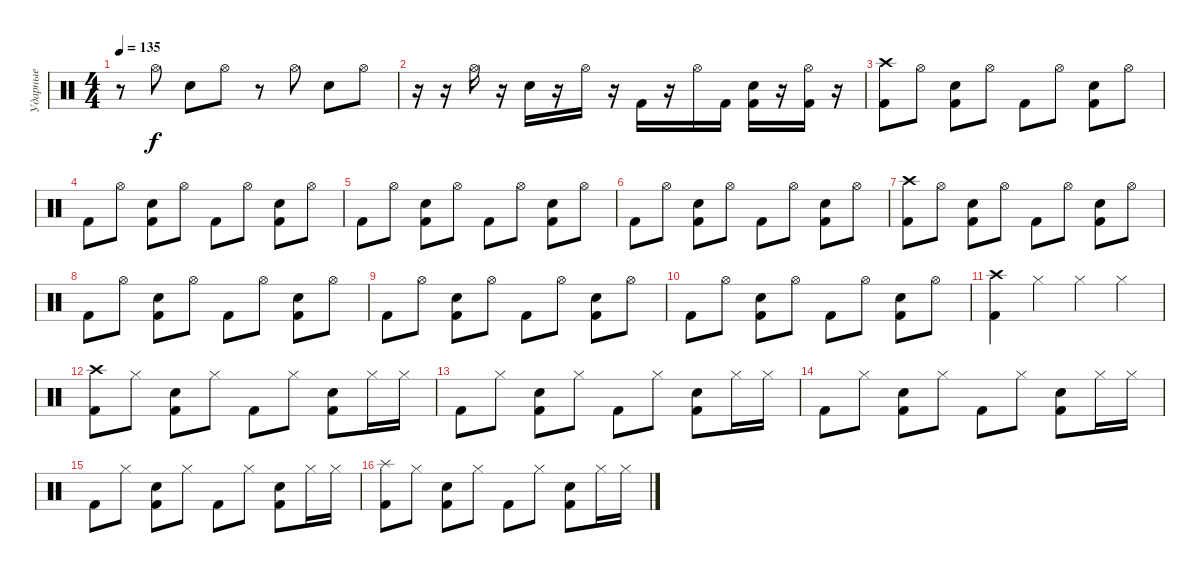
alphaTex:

\track ("Ударные" "Ударные") {instrument percussion}
\staff {score}
\articulation defaults
\ts (4 4)
\tempo 135
\clef neutral
\ks c
r.8{dy f} "Hi-Hat (open)".8 "Hand Clap (hit)".8 "Hi-Hat (open)".8 r.8 "Hi-Hat (open)".8 "Hand Clap (hit)".8 "Hi-Hat (open)".8 |
r.16 r.16 "Hi-Hat (open)".16 r.16 "Hand Clap (hit)".16 r.16 "Hi-Hat (open)".16 r.16 "Kick (hit) 2".16 r.16 "Hi-Hat (open)".16 "Kick (hit) 2".16 ("Kick (hit) 2" "Hand Clap (hit)").16 r.16 ("Kick (hit) 2" "Hi-Hat (open)").16 r.16 |
("Kick (hit) 2" "Crash high (hit)").8 "Hi-Hat (open)".8 ("Kick (hit) 2" "Snare (hit) 2").8 "Hi-Hat (open)".8 "Kick (hit) 2".8 "Hi-Hat (open)".8 ("Kick (hit) 2" "Snare (hit) 2").8 "Hi-Hat (open)".8 |
"Kick (hit) 2".8 "Hi-Hat (open)".8 ("Kick (hit) 2" "Snare (hit) 2").8 "Hi-Hat (open)".8 "Kick (hit) 2".8 "Hi-Hat (open)".8 ("Kick (hit) 2" "Snare (hit) 2").8 "Hi-Hat (open)".8 |
"Kick (hit) 2".8 "Hi-Hat (open)".8 ("Kick (hit) 2" "Snare (hit) 2").8 "Hi-Hat (open)".8 "Kick (hit) 2".8 "Hi-Hat (open)".8 ("Kick (hit) 2" "Snare (hit) 2").8 "Hi-Hat (open)".8 |
"Kick (hit) 2".8 "Hi-Hat (open)".8 ("Kick (hit) 2" "Snare (hit) 2").8 "Hi-Hat (open)".8 "Kick (hit) 2".8 "Hi-Hat (open)".8 ("Kick (hit) 2" "Snare (hit) 2").8 "Hi-Hat (open)".8 |
("Kick (hit) 2" "Crash high (hit)").8 "Hi-Hat (open)".8 ("Kick (hit) 2" "Snare (hit) 2").8 "Hi-Hat (open)".8 "Kick (hit) 2".8 "Hi-Hat (open)".8 ("Kick (hit) 2" "Snare (hit) 2").8 "Hi-Hat (open)".8 |
"Kick (hit) 2".8 "Hi-Hat (open)".8 ("Kick (hit) 2" "Snare (hit) 2").8 "Hi-Hat (open)".8 "Kick (hit) 2".8 "Hi-Hat (open)".8 ("Kick (hit) 2" "Snare (hit) 2").8 "Hi-Hat (open)".8 |
"Kick (hit) 2".8 "Hi-Hat (open)".8 ("Kick (hit) 2" "Snare (hit) 2").8 "Hi-Hat (open)".8 "Kick (hit) 2".8 "Hi-Hat (open)".8 ("Kick (hit) 2" "Snare (hit) 2").8 "Hi-Hat (open)".8 |
"Kick (hit) 2".8 "Hi-Hat (open)".8 ("Kick (hit) 2" "Snare (hit) 2").8 "Hi-Hat (open)".8 "Kick (hit) 2".8 "Hi-Hat (open)".8 ("Kick (hit) 2" "Snare (hit) 2").8 "Hi-Hat (open)".8 |
("Kick (hit) 2" "Crash high (hit)").4 "Hi-Hat (closed)".4 "Hi-Hat (closed)".4 "Hi-Hat (closed)".4 |
("Kick (hit) 2" "Crash high (hit)").8 "Hi-Hat (closed)".8 ("Kick (hit) 2" "Hand Clap (hit)").8 "Hi-Hat (closed)".8 "Kick (hit) 2".8 "Hi-Hat (closed)".8 ("Kick (hit) 2" "Hand Clap (hit)").8 "Hi-Hat (closed)".16 "Hi-Hat (closed)".16 |
"Kick (hit) 2".8 "Hi-Hat (closed)".8 ("Kick (hit) 2" "Hand Clap (hit)").8 "Hi-Hat (closed)".8 "Kick (hit) 2".8 "Hi-Hat (closed)".8 ("Kick (hit) 2" "Hand Clap (hit)").8 "Hi-Hat (closed)".16 "Hi-Hat (closed)".16 |
"Kick (hit) 2".8 "Hi-Hat (closed)".8 ("Kick (hit) 2" "Hand Clap (hit)").8 "Hi-Hat (closed)".8 "Kick (hit) 2".8 "Hi-Hat (closed)".8 ("Kick (hit) 2" "Hand Clap (hit)").8 "Hi-Hat (closed)".16 "Hi-Hat (closed)".16 |
"Kick (hit) 2".8 "Hi-Hat (closed)".8 ("Kick (hit) 2" "Hand Clap (hit)").8 "Hi-Hat (closed)".8 "Kick (hit) 2".8 "Hi-Hat (closed)".8 ("Kick (hit) 2" "Hand Clap (hit)").8 "Hi-Hat (closed)".16 "Hi-Hat (closed)".16 |
("Kick (hit) 2" "Splash (hit)").8 "Hi-Hat (closed)".8 ("Kick (hit) 2" "Hand Clap (hit)").8 "Hi-Hat (closed)".8 "Kick (hit) 2".8 "Hi-Hat (closed)".8 ("Kick (hit) 2" "Hand Clap (hit)").8 "Hi-Hat (closed)".16 "Hi-Hat (closed)".16
